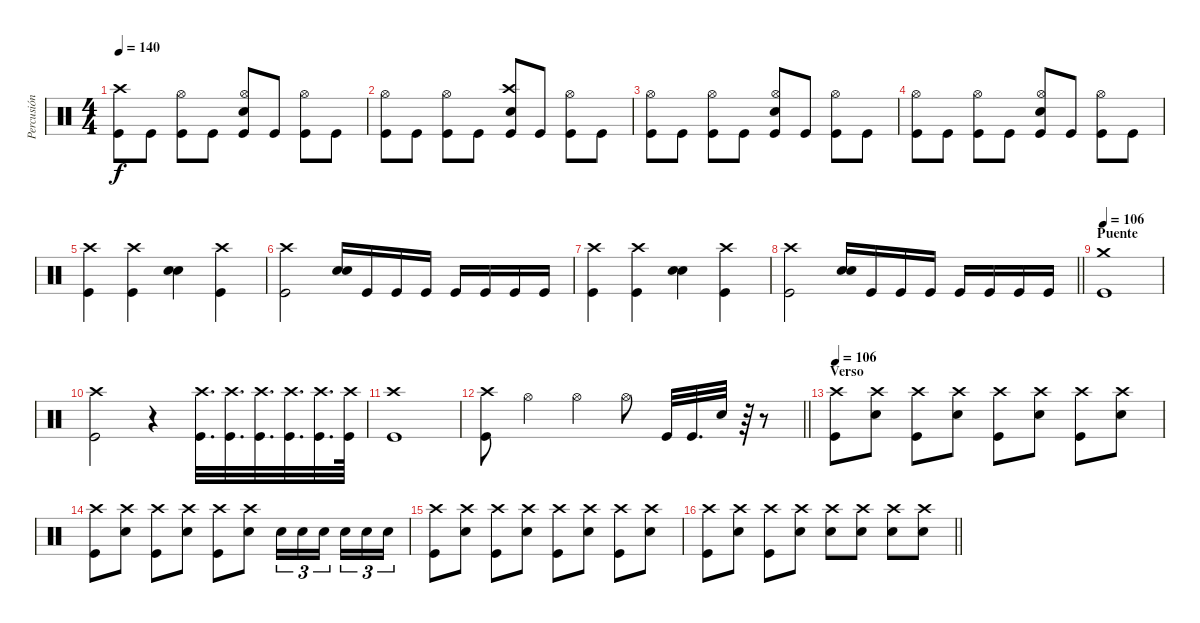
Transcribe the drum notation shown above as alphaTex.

\track ("Percusión" "Percusión") {instrument percussion}
\staff
\articulation defaults
\ts (4 4)
\tempo 140
\clef neutral
\ks c
("Kick (hit)" "Crash high (hit)").8{dy f} "Kick (hit)".8 ("Kick (hit)" "Hi-Hat (open)").8 "Kick (hit)".8 ("Kick (hit)" "Hi-Hat (open)" "Electric Snare (hit)").8 "Kick (hit)".8 ("Kick (hit)" "Hi-Hat (open)").8 "Kick (hit)".8 |
("Kick (hit)" "Hi-Hat (open)").8 "Kick (hit)".8 ("Kick (hit)" "Hi-Hat (open)").8 "Kick (hit)".8 ("Kick (hit)" "Crash high (hit)" "Electric Snare (hit)").8 "Kick (hit)".8 ("Kick (hit)" "Hi-Hat (open)").8 "Kick (hit)".8 |
("Kick (hit)" "Hi-Hat (open)").8 "Kick (hit)".8 ("Kick (hit)" "Hi-Hat (open)").8 "Kick (hit)".8 ("Kick (hit)" "Hi-Hat (open)" "Electric Snare (hit)").8 "Kick (hit)".8 ("Kick (hit)" "Hi-Hat (open)").8 "Kick (hit)".8 |
("Kick (hit)" "Hi-Hat (open)").8 "Kick (hit)".8 ("Kick (hit)" "Hi-Hat (open)").8 "Kick (hit)".8 ("Kick (hit)" "Hi-Hat (open)" "Electric Snare (hit)").8 "Kick (hit)".8 ("Kick (hit)" "Hi-Hat (open)").8 "Kick (hit)".8 |
("Kick (hit)" "Crash high (hit)").4 ("Kick (hit)" "Crash high (hit)").4 ("Electric Snare (hit)" "Electric Snare (hit)").4 ("Kick (hit)" "Crash high (hit)").4 |
("Kick (hit)" "Crash high (hit)").2 ("Electric Snare (hit)" "Electric Snare (hit)").16 "Kick (hit)".16 "Kick (hit)".16 "Kick (hit)".16 "Kick (hit)".16 "Kick (hit)".16 "Kick (hit)".16 "Kick (hit)".16 |
("Kick (hit)" "Crash high (hit)").4 ("Kick (hit)" "Crash high (hit)").4 ("Electric Snare (hit)" "Electric Snare (hit)").4 ("Kick (hit)" "Crash high (hit)").4 |
\barLineRight lightlight
("Kick (hit)" "Crash high (hit)").2 ("Electric Snare (hit)" "Electric Snare (hit)").16 "Kick (hit)".16 "Kick (hit)".16 "Kick (hit)".16 "Kick (hit)".16 "Kick (hit)".16 "Kick (hit)".16 "Kick (hit)".16 |
\section ("" "Puente")
\tempo 106
("Kick (hit)" "Crash medium (hit)").1 |
("Kick (hit)" "Crash high (hit)").2 r.4 ("Kick (hit)" "Crash high (hit)").32{d} ("Kick (hit)" "Crash high (hit)").32{d} ("Kick (hit)" "Crash high (hit)").32{d} ("Kick (hit)" "Crash high (hit)").32{d} ("Kick (hit)" "Crash high (hit)").32{d} ("Kick (hit)" "Crash high (hit)").64 |
("Kick (hit)" "Crash high (hit)").1 |
\barLineRight lightlight
("Kick (hit)" "Crash high (hit)").8 "Hi-Hat (open)".4 "Hi-Hat (open)".4 "Hi-Hat (open)".8 "Kick (hit)".32 "Kick (hit)".32{d} "Electric Snare (hit)".32 r.64 r.8 |
\section ("" "Verso")
\tempo 106
("Kick (hit)" "Crash high (hit)").8 ("Crash high (hit)" "Electric Snare (hit)").8 ("Kick (hit)" "Crash high (hit)").8 ("Crash high (hit)" "Electric Snare (hit)").8 ("Kick (hit)" "Crash high (hit)").8 ("Crash high (hit)" "Electric Snare (hit)").8 ("Kick (hit)" "Crash high (hit)").8 ("Crash high (hit)" "Electric Snare (hit)").8 |
("Kick (hit)" "Crash high (hit)").8 ("Crash high (hit)" "Electric Snare (hit)").8 ("Kick (hit)" "Crash high (hit)").8 ("Crash high (hit)" "Electric Snare (hit)").8 ("Kick (hit)" "Crash high (hit)").8 ("Crash high (hit)" "Electric Snare (hit)").8 "Electric Snare (hit)".16{tu (3 2)} "Electric Snare (hit)".16{tu (3 2)} "Electric Snare (hit)".16{tu (3 2) beam splitsecondary} "Electric Snare (hit)".16{tu (3 2)} "Electric Snare (hit)".16{tu (3 2)} "Electric Snare (hit)".16{tu (3 2)} |
("Kick (hit)" "Crash high (hit)").8 ("Crash high (hit)" "Electric Snare (hit)").8 ("Kick (hit)" "Crash high (hit)").8 ("Crash high (hit)" "Electric Snare (hit)").8 ("Kick (hit)" "Crash high (hit)").8 ("Crash high (hit)" "Electric Snare (hit)").8 ("Kick (hit)" "Crash high (hit)").8 ("Crash high (hit)" "Electric Snare (hit)").8 |
\barLineRight lightlight
("Kick (hit)" "Crash high (hit)").8 ("Crash high (hit)" "Electric Snare (hit)").8 ("Kick (hit)" "Crash high (hit)").8 ("Crash high (hit)" "Electric Snare (hit)").8 ("Crash high (hit)" "Electric Snare (hit)").8 ("Crash high (hit)" "Electric Snare (hit)").8 ("Crash high (hit)" "Electric Snare (hit)").8 ("Crash high (hit)" "Electric Snare (hit)").8
